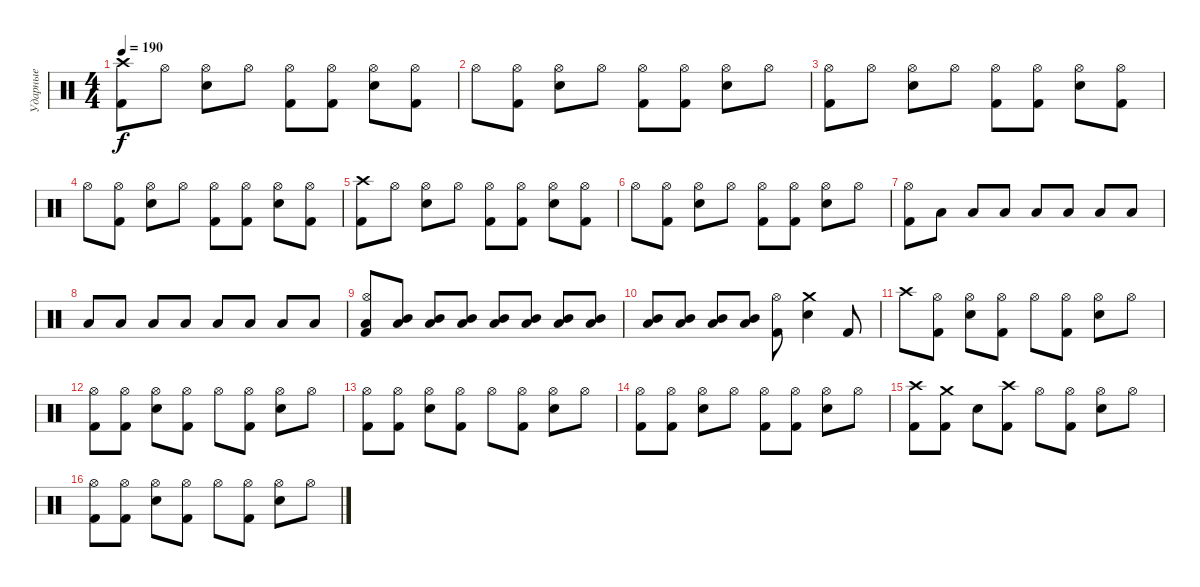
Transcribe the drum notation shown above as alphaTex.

\track ("Ударные" "Ударные") {instrument percussion}
\staff {score}
\articulation defaults
\ts (4 4)
\tempo 190
\clef neutral
\ks c
("Crash high (hit)" "Kick (hit) 2").8{dy f} "Hi-Hat (open)".8 ("Hi-Hat (open)" "Electric Snare (hit)").8 "Hi-Hat (open)".8 ("Hi-Hat (open)" "Kick (hit) 2").8 ("Hi-Hat (open)" "Kick (hit) 2").8 ("Hi-Hat (open)" "Electric Snare (hit)").8 ("Hi-Hat (open)" "Kick (hit) 2").8 |
"Hi-Hat (open)".8 ("Hi-Hat (open)" "Kick (hit) 2").8 ("Hi-Hat (open)" "Electric Snare (hit)").8 "Hi-Hat (open)".8 ("Hi-Hat (open)" "Kick (hit) 2").8 ("Hi-Hat (open)" "Kick (hit) 2").8 ("Hi-Hat (open)" "Electric Snare (hit)").8 "Hi-Hat (open)".8 |
("Hi-Hat (open)" "Kick (hit) 2").8 "Hi-Hat (open)".8 ("Hi-Hat (open)" "Electric Snare (hit)").8 "Hi-Hat (open)".8 ("Hi-Hat (open)" "Kick (hit) 2").8 ("Hi-Hat (open)" "Kick (hit) 2").8 ("Hi-Hat (open)" "Electric Snare (hit)").8 ("Hi-Hat (open)" "Kick (hit) 2").8 |
"Hi-Hat (open)".8 ("Hi-Hat (open)" "Kick (hit) 2").8 ("Hi-Hat (open)" "Electric Snare (hit)").8 "Hi-Hat (open)".8 ("Hi-Hat (open)" "Kick (hit) 2").8 ("Hi-Hat (open)" "Kick (hit) 2").8 ("Hi-Hat (open)" "Electric Snare (hit)").8 ("Hi-Hat (open)" "Kick (hit) 2").8 |
("Crash high (hit)" "Kick (hit) 2").8 "Hi-Hat (open)".8 ("Hi-Hat (open)" "Electric Snare (hit)").8 "Hi-Hat (open)".8 ("Hi-Hat (open)" "Kick (hit) 2").8 ("Hi-Hat (open)" "Kick (hit) 2").8 ("Hi-Hat (open)" "Electric Snare (hit)").8 ("Hi-Hat (open)" "Kick (hit) 2").8 |
"Hi-Hat (open)".8 ("Hi-Hat (open)" "Kick (hit) 2").8 ("Hi-Hat (open)" "Electric Snare (hit)").8 "Hi-Hat (open)".8 ("Hi-Hat (open)" "Kick (hit) 2").8 ("Hi-Hat (open)" "Kick (hit) 2").8 ("Hi-Hat (open)" "Electric Snare (hit)").8 "Hi-Hat (open)".8 |
("Hi-Hat (open)" "Kick (hit) 2").8 "Low Tom (hit)".8 "Low Tom (hit)".8 "Low Tom (hit)".8 "Low Tom (hit)".8 "Low Tom (hit)".8 "Low Tom (hit)".8 "Low Tom (hit)".8 |
"Low Tom (hit)".8 "Low Tom (hit)".8 "Low Tom (hit)".8 "Low Tom (hit)".8 "Low Tom (hit)".8 "Low Tom (hit)".8 "Low Tom (hit)".8 "Low Tom (hit)".8 |
("Hi-Hat (open)" "Kick (hit) 2" "Low Tom (hit)").8 ("Low Tom (hit)" "Mid Tom (hit)").8 ("Low Tom (hit)" "Mid Tom (hit)").8 ("Low Tom (hit)" "Mid Tom (hit)").8 ("Low Tom (hit)" "Mid Tom (hit)").8 ("Low Tom (hit)" "Mid Tom (hit)").8 ("Low Tom (hit)" "Mid Tom (hit)").8 ("Low Tom (hit)" "Mid Tom (hit)").8 |
("Low Tom (hit)" "Mid Tom (hit)").8 ("Low Tom (hit)" "Mid Tom (hit)").8 ("Low Tom (hit)" "Mid Tom (hit)").8 ("Low Tom (hit)" "Mid Tom (hit)").8 ("Hi-Hat (open)" "Kick (hit) 2").8 ("Crash medium (hit)" "Electric Snare (hit)").4 "Kick (hit) 2".8 |
"Crash high (hit)".8 ("Hi-Hat (open)" "Kick (hit) 2").8 ("Hi-Hat (open)" "Electric Snare (hit)").8 ("Hi-Hat (open)" "Kick (hit) 2").8 "Hi-Hat (open)".8 ("Hi-Hat (open)" "Kick (hit) 2").8 ("Hi-Hat (open)" "Electric Snare (hit)").8 "Hi-Hat (open)".8 |
("Hi-Hat (open)" "Kick (hit) 2").8 ("Hi-Hat (open)" "Kick (hit) 2").8 ("Hi-Hat (open)" "Electric Snare (hit)").8 ("Hi-Hat (open)" "Kick (hit) 2").8 "Hi-Hat (open)".8 ("Hi-Hat (open)" "Kick (hit) 2").8 ("Hi-Hat (open)" "Electric Snare (hit)").8 "Hi-Hat (open)".8 |
("Hi-Hat (open)" "Kick (hit) 2").8 ("Hi-Hat (open)" "Kick (hit) 2").8 ("Hi-Hat (open)" "Electric Snare (hit)").8 ("Hi-Hat (open)" "Kick (hit) 2").8 "Hi-Hat (open)".8 ("Hi-Hat (open)" "Kick (hit) 2").8 ("Hi-Hat (open)" "Electric Snare (hit)").8 "Hi-Hat (open)".8 |
("Hi-Hat (open)" "Kick (hit) 2").8 ("Hi-Hat (open)" "Kick (hit) 2").8 ("Hi-Hat (open)" "Electric Snare (hit)").8 "Hi-Hat (open)".8 ("Hi-Hat (open)" "Kick (hit) 2").8 ("Hi-Hat (open)" "Kick (hit) 2").8 ("Hi-Hat (open)" "Electric Snare (hit)").8 "Hi-Hat (open)".8 |
("Crash high (hit)" "Kick (hit) 2").8 ("Crash medium (hit)" "Kick (hit) 2").8 "Electric Snare (hit)".8 ("Crash high (hit)" "Kick (hit) 2").8 "Hi-Hat (open)".8 ("Hi-Hat (open)" "Kick (hit) 2").8 ("Hi-Hat (open)" "Electric Snare (hit)").8 "Hi-Hat (open)".8 |
("Hi-Hat (open)" "Kick (hit) 2").8 ("Hi-Hat (open)" "Kick (hit) 2").8 ("Hi-Hat (open)" "Electric Snare (hit)").8 ("Hi-Hat (open)" "Kick (hit) 2").8 "Hi-Hat (open)".8 ("Hi-Hat (open)" "Kick (hit) 2").8 ("Hi-Hat (open)" "Electric Snare (hit)").8 "Hi-Hat (open)".8
